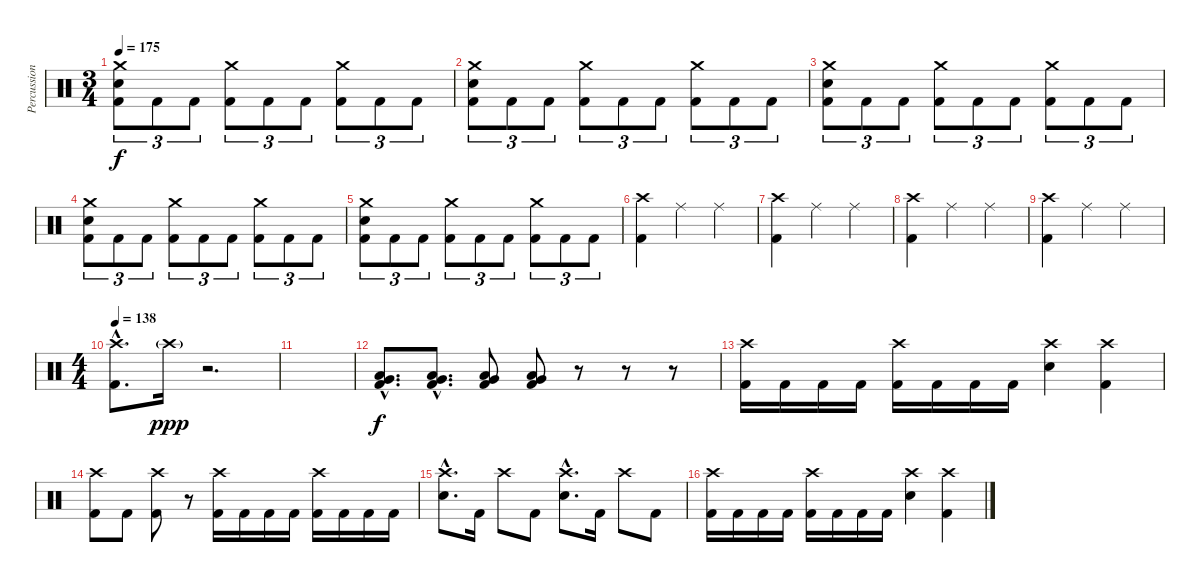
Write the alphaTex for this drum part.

\track ("Percussion" "Percussion") {instrument percussion}
\staff {score}
\articulation defaults
\ts (3 4)
\tempo 175
\clef neutral
\ks c
("Crash medium (hit)" "Electric Snare (hit)" "Kick (hit) 2").8{tu (3 2) dy f} "Kick (hit) 2".8{tu (3 2)} "Kick (hit) 2".8{tu (3 2)} ("Crash medium (hit)" "Kick (hit) 2").8{tu (3 2)} "Kick (hit) 2".8{tu (3 2)} "Kick (hit) 2".8{tu (3 2)} ("Crash medium (hit)" "Kick (hit) 2").8{tu (3 2)} "Kick (hit) 2".8{tu (3 2)} "Kick (hit) 2".8{tu (3 2)} |
("Crash medium (hit)" "Electric Snare (hit)" "Kick (hit) 2").8{tu (3 2)} "Kick (hit) 2".8{tu (3 2)} "Kick (hit) 2".8{tu (3 2)} ("Crash medium (hit)" "Kick (hit) 2").8{tu (3 2)} "Kick (hit) 2".8{tu (3 2)} "Kick (hit) 2".8{tu (3 2)} ("Crash medium (hit)" "Kick (hit) 2").8{tu (3 2)} "Kick (hit) 2".8{tu (3 2)} "Kick (hit) 2".8{tu (3 2)} |
("Crash medium (hit)" "Electric Snare (hit)" "Kick (hit) 2").8{tu (3 2)} "Kick (hit) 2".8{tu (3 2)} "Kick (hit) 2".8{tu (3 2)} ("Crash medium (hit)" "Kick (hit) 2").8{tu (3 2)} "Kick (hit) 2".8{tu (3 2)} "Kick (hit) 2".8{tu (3 2)} ("Crash medium (hit)" "Kick (hit) 2").8{tu (3 2)} "Kick (hit) 2".8{tu (3 2)} "Kick (hit) 2".8{tu (3 2)} |
("Crash medium (hit)" "Electric Snare (hit)" "Kick (hit) 2").8{tu (3 2)} "Kick (hit) 2".8{tu (3 2)} "Kick (hit) 2".8{tu (3 2)} ("Crash medium (hit)" "Kick (hit) 2").8{tu (3 2)} "Kick (hit) 2".8{tu (3 2)} "Kick (hit) 2".8{tu (3 2)} ("Crash medium (hit)" "Kick (hit) 2").8{tu (3 2)} "Kick (hit) 2".8{tu (3 2)} "Kick (hit) 2".8{tu (3 2)} |
("Crash medium (hit)" "Electric Snare (hit)" "Kick (hit) 2").8{tu (3 2)} "Kick (hit) 2".8{tu (3 2)} "Kick (hit) 2".8{tu (3 2)} ("Crash medium (hit)" "Kick (hit) 2").8{tu (3 2)} "Kick (hit) 2".8{tu (3 2)} "Kick (hit) 2".8{tu (3 2)} ("Crash medium (hit)" "Kick (hit) 2").8{tu (3 2)} "Kick (hit) 2".8{tu (3 2)} "Kick (hit) 2".8{tu (3 2)} |
("Crash high (hit)" "Kick (hit) 2").4 "Ride (middle)".4 "Ride (middle)".4 |
("Crash high (hit)" "Kick (hit) 2").4 "Ride (middle)".4 "Ride (middle)".4 |
("Crash high (hit)" "Kick (hit) 2").4 "Ride (middle)".4 "Ride (middle)".4 |
("Crash high (hit)" "Kick (hit) 2").4 "Ride (middle)".4 "Ride (middle)".4 |
\ts (4 4)
\tempo 138
("Crash high (hit)"{hac} "Kick (hit) 2"{hac}).8{d} "Crash high (hit)"{g}.16{dy ppp} r.2{d} |
|
("Very Low Tom (hit)"{hac} "Low Floor Tom (hit)"{hac} "Kick (hit) 2"{hac}).8{d dy f} ("Very Low Tom (hit)"{hac} "Low Floor Tom (hit)"{hac} "Kick (hit) 2"{hac}).8{d} ("Very Low Tom (hit)" "Low Floor Tom (hit)" "Kick (hit) 2").8 ("Very Low Tom (hit)" "Low Floor Tom (hit)" "Kick (hit) 2").8 r.8 r.8 r.8 |
("Crash high (hit)" "Kick (hit) 2").16 "Kick (hit) 2".16 "Kick (hit) 2".16 "Kick (hit) 2".16 ("Crash high (hit)" "Kick (hit) 2").16 "Kick (hit) 2".16 "Kick (hit) 2".16 "Kick (hit) 2".16 ("Crash high (hit)" "Electric Snare (hit)").4 ("Crash high (hit)" "Kick (hit) 2").4 |
("Crash high (hit)" "Kick (hit) 2").8 "Kick (hit) 2".8 ("Crash high (hit)" "Kick (hit) 2").8 r.8 ("Crash high (hit)" "Kick (hit) 2").16 "Kick (hit) 2".16 "Kick (hit) 2".16 "Kick (hit) 2".16 ("Crash high (hit)" "Kick (hit) 2").16 "Kick (hit) 2".16 "Kick (hit) 2".16 "Kick (hit) 2".16 |
("Crash high (hit)"{hac} "Electric Snare (hit)"{hac}).8{d} "Kick (hit) 2".16 "Crash high (hit)".8 "Kick (hit) 2".8 ("Crash high (hit)"{hac} "Electric Snare (hit)"{hac}).8{d} "Kick (hit) 2".16 "Crash high (hit)".8 "Kick (hit) 2".8 |
("Crash high (hit)" "Kick (hit) 2").16 "Kick (hit) 2".16 "Kick (hit) 2".16 "Kick (hit) 2".16 ("Crash high (hit)" "Kick (hit) 2").16 "Kick (hit) 2".16 "Kick (hit) 2".16 "Kick (hit) 2".16 ("Crash high (hit)" "Electric Snare (hit)").4 ("Crash high (hit)" "Kick (hit) 2").4
